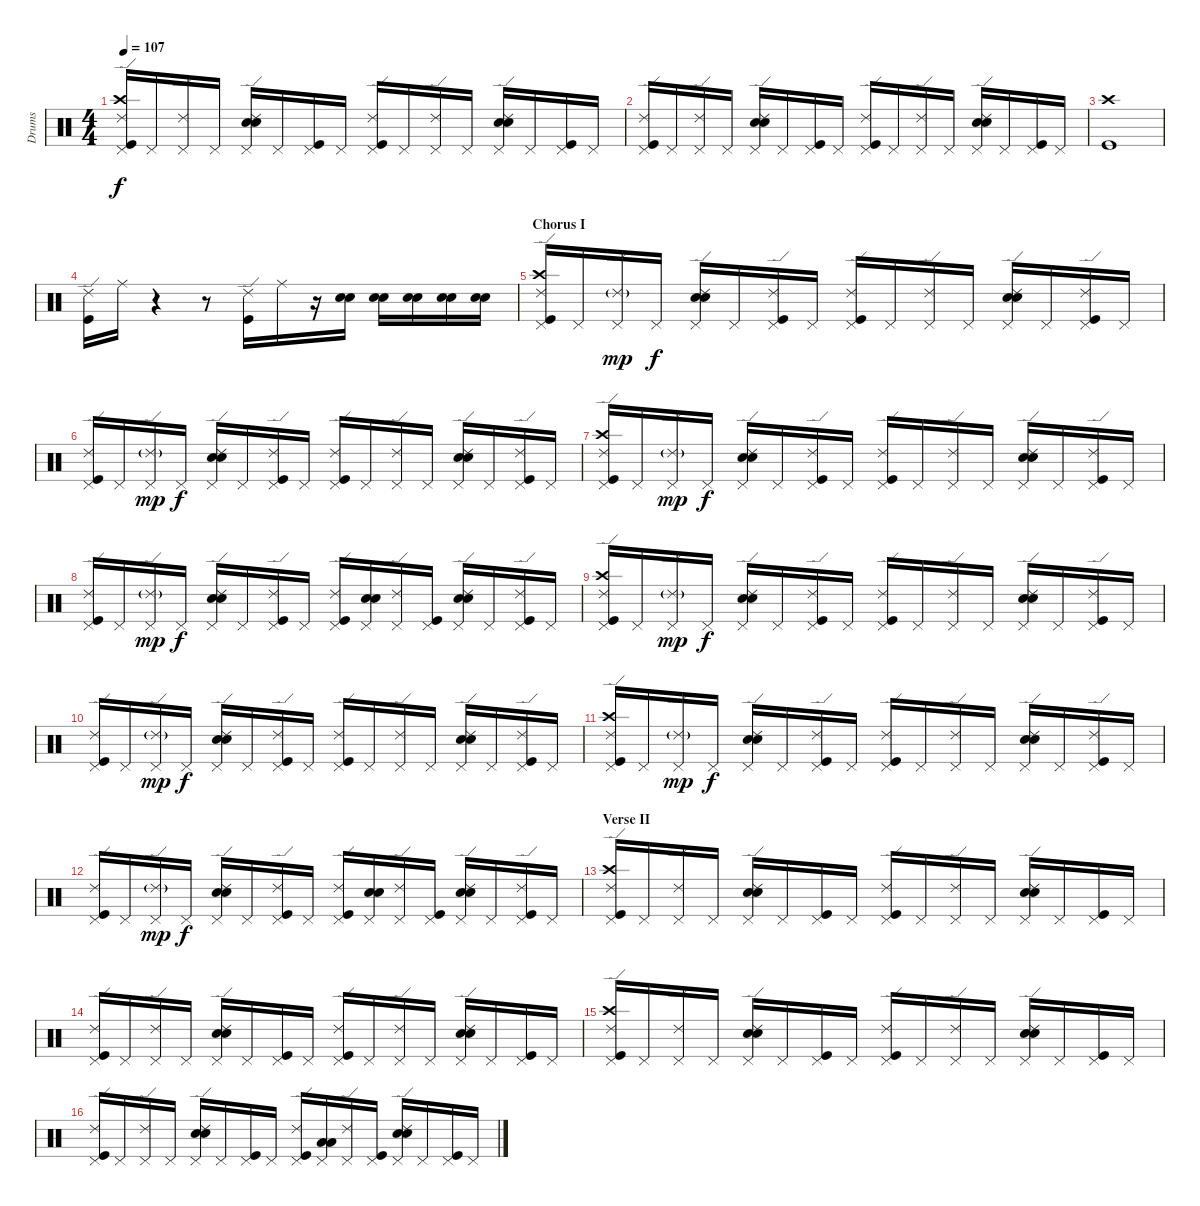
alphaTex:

\track ("Drums" "Drums") {instrument percussion}
\staff {score}
\articulation defaults
\ts (4 4)
\tempo 107
\clef neutral
\ks c
("Pedal Hi-Hat (hit)" "Crash high (hit)" "Ride (edge) 2" "Kick (hit)").16{dy f} "Pedal Hi-Hat (hit)".16 ("Pedal Hi-Hat (hit)" "Ride (edge) 2").16 "Pedal Hi-Hat (hit)".16 ("Pedal Hi-Hat (hit)" "Ride (edge) 2" "Electric Snare (hit)" "Snare (hit) 2").16 "Pedal Hi-Hat (hit)".16 ("Pedal Hi-Hat (hit)" "Kick (hit)").16 "Pedal Hi-Hat (hit)".16 ("Pedal Hi-Hat (hit)" "Ride (edge) 2" "Kick (hit)").16 "Pedal Hi-Hat (hit)".16 ("Pedal Hi-Hat (hit)" "Ride (edge) 2").16 "Pedal Hi-Hat (hit)".16 ("Pedal Hi-Hat (hit)" "Ride (edge) 2" "Electric Snare (hit)" "Snare (hit) 2").16 "Pedal Hi-Hat (hit)".16 ("Pedal Hi-Hat (hit)" "Kick (hit)").16 "Pedal Hi-Hat (hit)".16 |
("Pedal Hi-Hat (hit)" "Ride (edge) 2" "Kick (hit)").16 "Pedal Hi-Hat (hit)".16 ("Pedal Hi-Hat (hit)" "Ride (edge) 2").16 "Pedal Hi-Hat (hit)".16 ("Pedal Hi-Hat (hit)" "Ride (edge) 2" "Electric Snare (hit)" "Snare (hit) 2").16 "Pedal Hi-Hat (hit)".16 ("Pedal Hi-Hat (hit)" "Kick (hit)").16 "Pedal Hi-Hat (hit)".16 ("Pedal Hi-Hat (hit)" "Ride (edge) 2" "Kick (hit)").16 "Pedal Hi-Hat (hit)".16 ("Pedal Hi-Hat (hit)" "Ride (edge) 2").16 "Pedal Hi-Hat (hit)".16 ("Pedal Hi-Hat (hit)" "Ride (edge) 2" "Electric Snare (hit)" "Snare (hit) 2").16 "Pedal Hi-Hat (hit)".16 ("Pedal Hi-Hat (hit)" "Kick (hit)").16 "Pedal Hi-Hat (hit)".16 |
("Crash high (hit)" "Kick (hit)").1 |
("Ride (edge) 2" "Kick (hit)").16 "Ride (middle)".16 r.4 r.8 ("Ride (edge) 2" "Kick (hit)").16 "Ride (middle)".16 r.16 ("Electric Snare (hit)" "Snare (hit) 2").16 ("Electric Snare (hit)" "Snare (hit) 2").16 ("Electric Snare (hit)" "Snare (hit) 2").16 ("Electric Snare (hit)" "Snare (hit) 2").16 ("Electric Snare (hit)" "Snare (hit) 2").16 |
\section ("" "Chorus I")
("Pedal Hi-Hat (hit)" "Crash high (hit)" "Ride (edge) 2" "Kick (hit)").16 "Pedal Hi-Hat (hit)".16 ("Pedal Hi-Hat (hit)" "Ride (edge) 2"{g}).16{dy mp} "Pedal Hi-Hat (hit)".16{dy f} ("Pedal Hi-Hat (hit)" "Ride (edge) 2" "Electric Snare (hit)" "Snare (hit) 2").16 "Pedal Hi-Hat (hit)".16 ("Pedal Hi-Hat (hit)" "Ride (edge) 2" "Kick (hit)").16 "Pedal Hi-Hat (hit)".16 ("Pedal Hi-Hat (hit)" "Ride (edge) 2" "Kick (hit)").16 "Pedal Hi-Hat (hit)".16 ("Pedal Hi-Hat (hit)" "Ride (edge) 2").16 "Pedal Hi-Hat (hit)".16 ("Pedal Hi-Hat (hit)" "Ride (edge) 2" "Electric Snare (hit)" "Snare (hit) 2").16 "Pedal Hi-Hat (hit)".16 ("Pedal Hi-Hat (hit)" "Ride (edge) 2" "Kick (hit)").16 "Pedal Hi-Hat (hit)".16 |
("Pedal Hi-Hat (hit)" "Ride (edge) 2" "Kick (hit)").16 "Pedal Hi-Hat (hit)".16 ("Pedal Hi-Hat (hit)" "Ride (edge) 2"{g}).16{dy mp} "Pedal Hi-Hat (hit)".16{dy f} ("Pedal Hi-Hat (hit)" "Ride (edge) 2" "Electric Snare (hit)" "Snare (hit) 2").16 "Pedal Hi-Hat (hit)".16 ("Pedal Hi-Hat (hit)" "Ride (edge) 2" "Kick (hit)").16 "Pedal Hi-Hat (hit)".16 ("Pedal Hi-Hat (hit)" "Ride (edge) 2" "Kick (hit)").16 "Pedal Hi-Hat (hit)".16 ("Pedal Hi-Hat (hit)" "Ride (edge) 2").16 "Pedal Hi-Hat (hit)".16 ("Pedal Hi-Hat (hit)" "Ride (edge) 2" "Electric Snare (hit)" "Snare (hit) 2").16 "Pedal Hi-Hat (hit)".16 ("Pedal Hi-Hat (hit)" "Ride (edge) 2" "Kick (hit)").16 "Pedal Hi-Hat (hit)".16 |
("Pedal Hi-Hat (hit)" "Crash high (hit)" "Ride (edge) 2" "Kick (hit)").16 "Pedal Hi-Hat (hit)".16 ("Pedal Hi-Hat (hit)" "Ride (edge) 2"{g}).16{dy mp} "Pedal Hi-Hat (hit)".16{dy f} ("Pedal Hi-Hat (hit)" "Ride (edge) 2" "Electric Snare (hit)" "Snare (hit) 2").16 "Pedal Hi-Hat (hit)".16 ("Pedal Hi-Hat (hit)" "Ride (edge) 2" "Kick (hit)").16 "Pedal Hi-Hat (hit)".16 ("Pedal Hi-Hat (hit)" "Ride (edge) 2" "Kick (hit)").16 "Pedal Hi-Hat (hit)".16 ("Pedal Hi-Hat (hit)" "Ride (edge) 2").16 "Pedal Hi-Hat (hit)".16 ("Pedal Hi-Hat (hit)" "Ride (edge) 2" "Electric Snare (hit)" "Snare (hit) 2").16 "Pedal Hi-Hat (hit)".16 ("Pedal Hi-Hat (hit)" "Ride (edge) 2" "Kick (hit)").16 "Pedal Hi-Hat (hit)".16 |
("Pedal Hi-Hat (hit)" "Ride (edge) 2" "Kick (hit)").16 "Pedal Hi-Hat (hit)".16 ("Pedal Hi-Hat (hit)" "Ride (edge) 2"{g}).16{dy mp} "Pedal Hi-Hat (hit)".16{dy f} ("Pedal Hi-Hat (hit)" "Ride (edge) 2" "Electric Snare (hit)" "Snare (hit) 2").16 "Pedal Hi-Hat (hit)".16 ("Pedal Hi-Hat (hit)" "Ride (edge) 2" "Kick (hit)").16 "Pedal Hi-Hat (hit)".16 ("Pedal Hi-Hat (hit)" "Ride (edge) 2" "Kick (hit)").16 ("Pedal Hi-Hat (hit)" "Electric Snare (hit)" "Snare (hit) 2").16 ("Pedal Hi-Hat (hit)" "Ride (edge) 2").16 ("Pedal Hi-Hat (hit)" "Kick (hit)").16 ("Pedal Hi-Hat (hit)" "Ride (edge) 2" "Electric Snare (hit)" "Snare (hit) 2").16 "Pedal Hi-Hat (hit)".16 ("Pedal Hi-Hat (hit)" "Ride (edge) 2" "Kick (hit)").16 "Pedal Hi-Hat (hit)".16 |
("Pedal Hi-Hat (hit)" "Crash high (hit)" "Ride (edge) 2" "Kick (hit)").16 "Pedal Hi-Hat (hit)".16 ("Pedal Hi-Hat (hit)" "Ride (edge) 2"{g}).16{dy mp} "Pedal Hi-Hat (hit)".16{dy f} ("Pedal Hi-Hat (hit)" "Ride (edge) 2" "Electric Snare (hit)" "Snare (hit) 2").16 "Pedal Hi-Hat (hit)".16 ("Pedal Hi-Hat (hit)" "Ride (edge) 2" "Kick (hit)").16 "Pedal Hi-Hat (hit)".16 ("Pedal Hi-Hat (hit)" "Ride (edge) 2" "Kick (hit)").16 "Pedal Hi-Hat (hit)".16 ("Pedal Hi-Hat (hit)" "Ride (edge) 2").16 "Pedal Hi-Hat (hit)".16 ("Pedal Hi-Hat (hit)" "Ride (edge) 2" "Electric Snare (hit)" "Snare (hit) 2").16 "Pedal Hi-Hat (hit)".16 ("Pedal Hi-Hat (hit)" "Ride (edge) 2" "Kick (hit)").16 "Pedal Hi-Hat (hit)".16 |
("Pedal Hi-Hat (hit)" "Ride (edge) 2" "Kick (hit)").16 "Pedal Hi-Hat (hit)".16 ("Pedal Hi-Hat (hit)" "Ride (edge) 2"{g}).16{dy mp} "Pedal Hi-Hat (hit)".16{dy f} ("Pedal Hi-Hat (hit)" "Ride (edge) 2" "Electric Snare (hit)" "Snare (hit) 2").16 "Pedal Hi-Hat (hit)".16 ("Pedal Hi-Hat (hit)" "Ride (edge) 2" "Kick (hit)").16 "Pedal Hi-Hat (hit)".16 ("Pedal Hi-Hat (hit)" "Ride (edge) 2" "Kick (hit)").16 "Pedal Hi-Hat (hit)".16 ("Pedal Hi-Hat (hit)" "Ride (edge) 2").16 "Pedal Hi-Hat (hit)".16 ("Pedal Hi-Hat (hit)" "Ride (edge) 2" "Electric Snare (hit)" "Snare (hit) 2").16 "Pedal Hi-Hat (hit)".16 ("Pedal Hi-Hat (hit)" "Ride (edge) 2" "Kick (hit)").16 "Pedal Hi-Hat (hit)".16 |
("Pedal Hi-Hat (hit)" "Crash high (hit)" "Ride (edge) 2" "Kick (hit)").16 "Pedal Hi-Hat (hit)".16 ("Pedal Hi-Hat (hit)" "Ride (edge) 2"{g}).16{dy mp} "Pedal Hi-Hat (hit)".16{dy f} ("Pedal Hi-Hat (hit)" "Ride (edge) 2" "Electric Snare (hit)" "Snare (hit) 2").16 "Pedal Hi-Hat (hit)".16 ("Pedal Hi-Hat (hit)" "Ride (edge) 2" "Kick (hit)").16 "Pedal Hi-Hat (hit)".16 ("Pedal Hi-Hat (hit)" "Ride (edge) 2" "Kick (hit)").16 "Pedal Hi-Hat (hit)".16 ("Pedal Hi-Hat (hit)" "Ride (edge) 2").16 "Pedal Hi-Hat (hit)".16 ("Pedal Hi-Hat (hit)" "Ride (edge) 2" "Electric Snare (hit)" "Snare (hit) 2").16 "Pedal Hi-Hat (hit)".16 ("Pedal Hi-Hat (hit)" "Ride (edge) 2" "Kick (hit)").16 "Pedal Hi-Hat (hit)".16 |
("Pedal Hi-Hat (hit)" "Ride (edge) 2" "Kick (hit)").16 "Pedal Hi-Hat (hit)".16 ("Pedal Hi-Hat (hit)" "Ride (edge) 2"{g}).16{dy mp} "Pedal Hi-Hat (hit)".16{dy f} ("Pedal Hi-Hat (hit)" "Ride (edge) 2" "Electric Snare (hit)" "Snare (hit) 2").16 "Pedal Hi-Hat (hit)".16 ("Pedal Hi-Hat (hit)" "Ride (edge) 2" "Kick (hit)").16 "Pedal Hi-Hat (hit)".16 ("Pedal Hi-Hat (hit)" "Ride (edge) 2" "Kick (hit)").16 ("Pedal Hi-Hat (hit)" "Electric Snare (hit)" "Snare (hit) 2").16 ("Pedal Hi-Hat (hit)" "Ride (edge) 2").16 ("Pedal Hi-Hat (hit)" "Kick (hit)").16 ("Pedal Hi-Hat (hit)" "Ride (edge) 2" "Electric Snare (hit)" "Snare (hit) 2").16 "Pedal Hi-Hat (hit)".16 ("Pedal Hi-Hat (hit)" "Ride (edge) 2" "Kick (hit)").16 "Pedal Hi-Hat (hit)".16 |
\section ("" "Verse II")
("Pedal Hi-Hat (hit)" "Crash high (hit)" "Ride (edge) 2" "Kick (hit)").16 "Pedal Hi-Hat (hit)".16 ("Pedal Hi-Hat (hit)" "Ride (edge) 2").16 "Pedal Hi-Hat (hit)".16 ("Pedal Hi-Hat (hit)" "Ride (edge) 2" "Electric Snare (hit)" "Snare (hit) 2").16 "Pedal Hi-Hat (hit)".16 ("Pedal Hi-Hat (hit)" "Kick (hit)").16 "Pedal Hi-Hat (hit)".16 ("Pedal Hi-Hat (hit)" "Ride (edge) 2" "Kick (hit)").16 "Pedal Hi-Hat (hit)".16 ("Pedal Hi-Hat (hit)" "Ride (edge) 2").16 "Pedal Hi-Hat (hit)".16 ("Pedal Hi-Hat (hit)" "Ride (edge) 2" "Electric Snare (hit)" "Snare (hit) 2").16 "Pedal Hi-Hat (hit)".16 ("Pedal Hi-Hat (hit)" "Kick (hit)").16 "Pedal Hi-Hat (hit)".16 |
("Pedal Hi-Hat (hit)" "Ride (edge) 2" "Kick (hit)").16 "Pedal Hi-Hat (hit)".16 ("Pedal Hi-Hat (hit)" "Ride (edge) 2").16 "Pedal Hi-Hat (hit)".16 ("Pedal Hi-Hat (hit)" "Ride (edge) 2" "Electric Snare (hit)" "Snare (hit) 2").16 "Pedal Hi-Hat (hit)".16 ("Pedal Hi-Hat (hit)" "Kick (hit)").16 "Pedal Hi-Hat (hit)".16 ("Pedal Hi-Hat (hit)" "Ride (edge) 2" "Kick (hit)").16 "Pedal Hi-Hat (hit)".16 ("Pedal Hi-Hat (hit)" "Ride (edge) 2").16 "Pedal Hi-Hat (hit)".16 ("Pedal Hi-Hat (hit)" "Ride (edge) 2" "Electric Snare (hit)" "Snare (hit) 2").16 "Pedal Hi-Hat (hit)".16 ("Pedal Hi-Hat (hit)" "Kick (hit)").16 "Pedal Hi-Hat (hit)".16 |
("Pedal Hi-Hat (hit)" "Crash high (hit)" "Ride (edge) 2" "Kick (hit)").16 "Pedal Hi-Hat (hit)".16 ("Pedal Hi-Hat (hit)" "Ride (edge) 2").16 "Pedal Hi-Hat (hit)".16 ("Pedal Hi-Hat (hit)" "Ride (edge) 2" "Electric Snare (hit)" "Snare (hit) 2").16 "Pedal Hi-Hat (hit)".16 ("Pedal Hi-Hat (hit)" "Kick (hit)").16 "Pedal Hi-Hat (hit)".16 ("Pedal Hi-Hat (hit)" "Ride (edge) 2" "Kick (hit)").16 "Pedal Hi-Hat (hit)".16 ("Pedal Hi-Hat (hit)" "Ride (edge) 2").16 "Pedal Hi-Hat (hit)".16 ("Pedal Hi-Hat (hit)" "Ride (edge) 2" "Electric Snare (hit)" "Snare (hit) 2").16 "Pedal Hi-Hat (hit)".16 ("Pedal Hi-Hat (hit)" "Kick (hit)").16 "Pedal Hi-Hat (hit)".16 |
("Pedal Hi-Hat (hit)" "Ride (edge) 2" "Kick (hit)").16 "Pedal Hi-Hat (hit)".16 ("Pedal Hi-Hat (hit)" "Ride (edge) 2").16 "Pedal Hi-Hat (hit)".16 ("Pedal Hi-Hat (hit)" "Ride (edge) 2" "Electric Snare (hit)" "Snare (hit) 2").16 "Pedal Hi-Hat (hit)".16 ("Pedal Hi-Hat (hit)" "Kick (hit)").16 "Pedal Hi-Hat (hit)".16 ("Pedal Hi-Hat (hit)" "Ride (edge) 2" "Kick (hit)").16 ("Pedal Hi-Hat (hit)" "Low Tom (hit)" "Low Tom (hit)").16 ("Pedal Hi-Hat (hit)" "Ride (edge) 2").16 ("Pedal Hi-Hat (hit)" "Kick (hit)").16 ("Pedal Hi-Hat (hit)" "Ride (edge) 2" "Electric Snare (hit)" "Snare (hit) 2").16 "Pedal Hi-Hat (hit)".16 ("Pedal Hi-Hat (hit)" "Kick (hit)").16 "Pedal Hi-Hat (hit)".16
